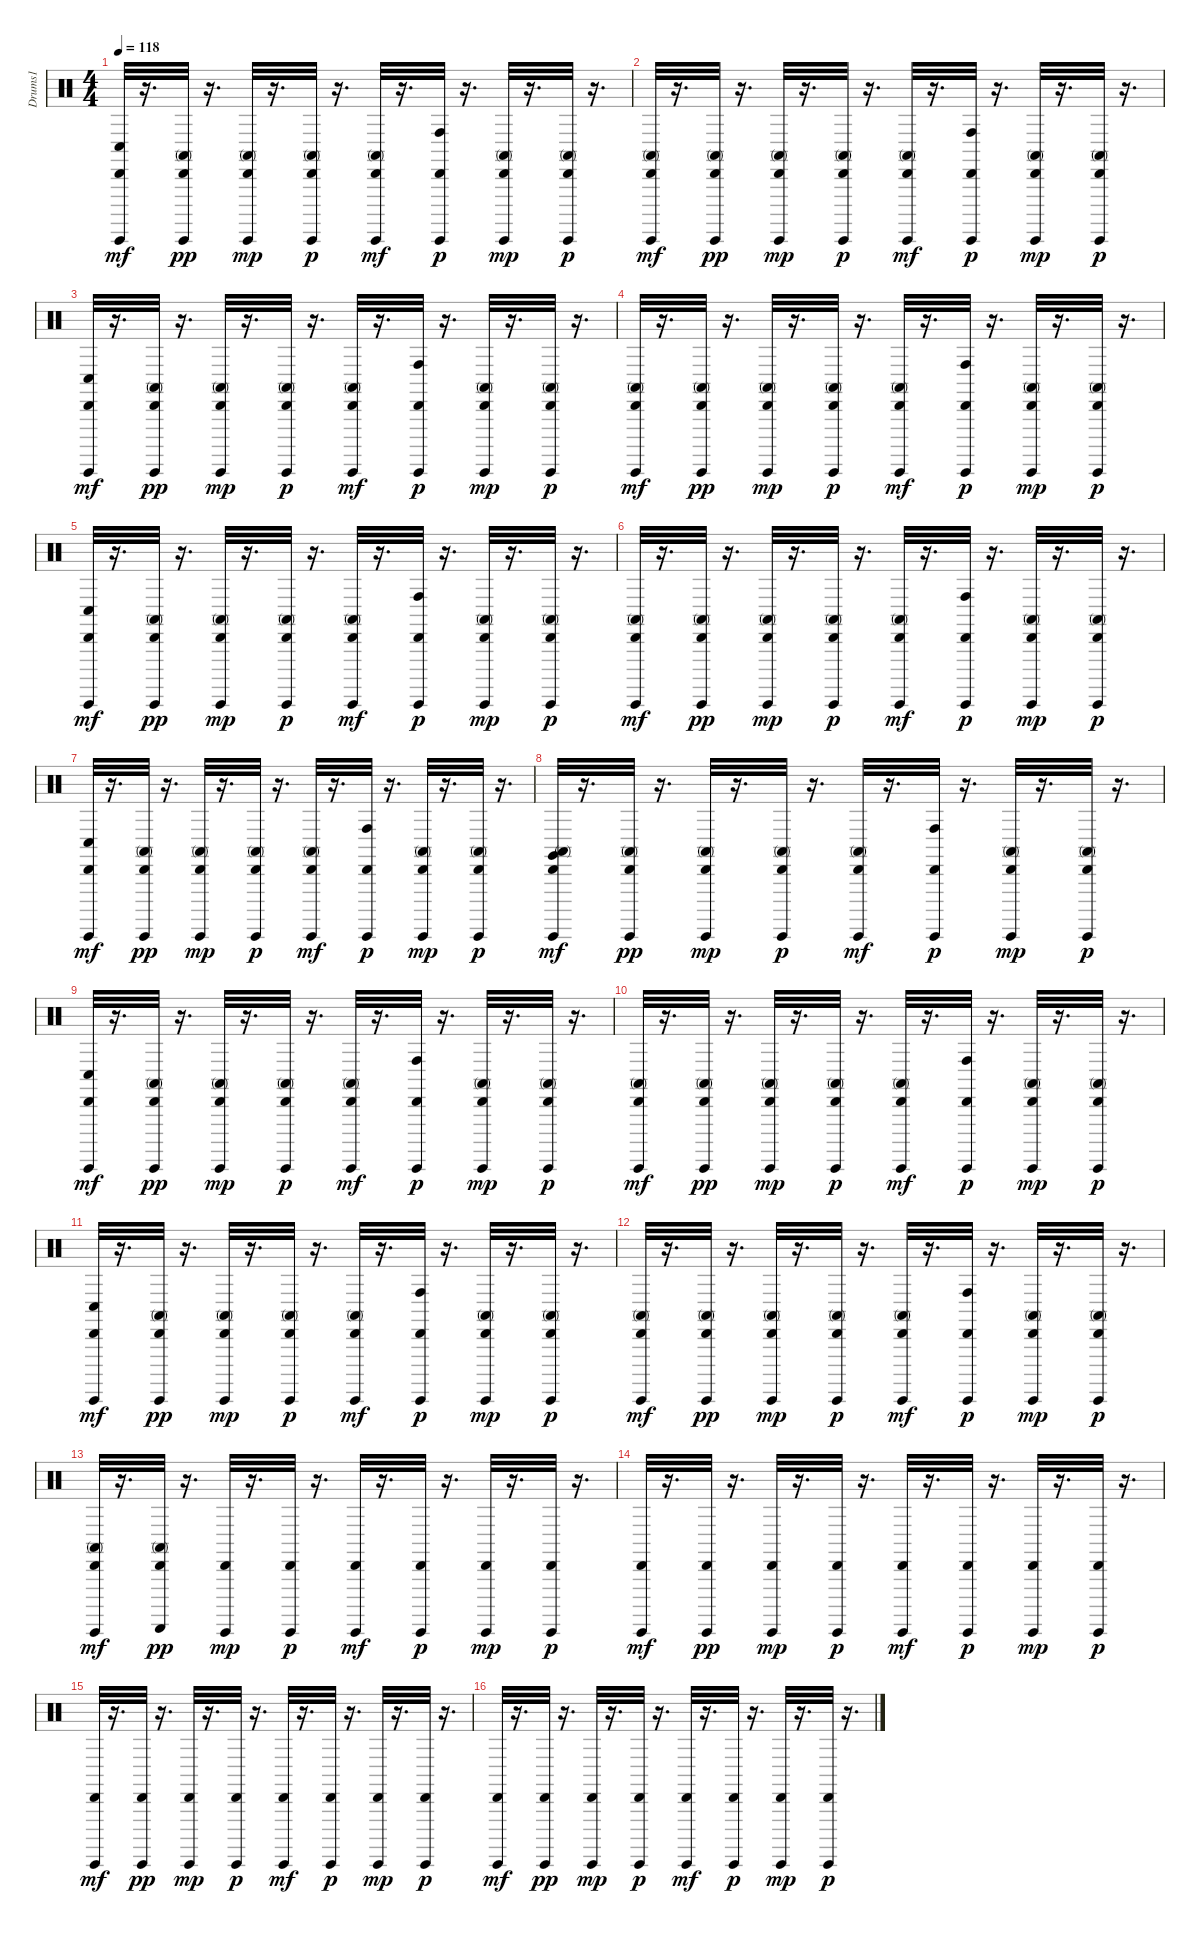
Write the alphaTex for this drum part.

\track ("Drums1" "Drums1") {instrument percussion}
\staff {score}
\articulation defaults
\ts (4 4)
\tempo 118
\clef neutral
\ks c
("Conga low (hit)" "Guiro (hit)" "Cabasa (hit)").32{dy mf} r.16{d} ("Conga high (mute)" "Guiro (hit)" "Cabasa (hit)").32{dy pp} r.16{d} ("Conga high (mute)" "Guiro (hit)" "Cabasa (hit)").32{dy mp} r.16{d} ("Conga high (mute)" "Guiro (hit)" "Cabasa (hit)").32{dy p} r.16{d} ("Conga high (mute)" "Guiro (hit)" "Cabasa (hit)").32{dy mf} r.16{d} ("Conga high (hit)" "Guiro (hit)" "Cabasa (hit)").32{dy p} r.16{d} ("Conga high (mute)" "Guiro (hit)" "Cabasa (hit)").32{dy mp} r.16{d} ("Conga high (mute)" "Guiro (hit)" "Cabasa (hit)").32{dy p} r.16{d} |
("Conga high (mute)" "Guiro (hit)" "Cabasa (hit)").32{dy mf} r.16{d} ("Conga high (mute)" "Guiro (hit)" "Cabasa (hit)").32{dy pp} r.16{d} ("Conga high (mute)" "Guiro (hit)" "Cabasa (hit)").32{dy mp} r.16{d} ("Conga high (mute)" "Guiro (hit)" "Cabasa (hit)").32{dy p} r.16{d} ("Conga high (mute)" "Guiro (hit)" "Cabasa (hit)").32{dy mf} r.16{d} ("Conga high (hit)" "Guiro (hit)" "Cabasa (hit)").32{dy p} r.16{d} ("Conga high (mute)" "Guiro (hit)" "Cabasa (hit)").32{dy mp} r.16{d} ("Conga high (mute)" "Guiro (hit)" "Cabasa (hit)").32{dy p} r.16{d} |
("Conga low (hit)" "Guiro (hit)" "Cabasa (hit)").32{dy mf} r.16{d} ("Conga high (mute)" "Guiro (hit)" "Cabasa (hit)").32{dy pp} r.16{d} ("Conga high (mute)" "Guiro (hit)" "Cabasa (hit)").32{dy mp} r.16{d} ("Conga high (mute)" "Guiro (hit)" "Cabasa (hit)").32{dy p} r.16{d} ("Conga high (mute)" "Guiro (hit)" "Cabasa (hit)").32{dy mf} r.16{d} ("Conga high (hit)" "Guiro (hit)" "Cabasa (hit)").32{dy p} r.16{d} ("Conga high (mute)" "Guiro (hit)" "Cabasa (hit)").32{dy mp} r.16{d} ("Conga high (mute)" "Guiro (hit)" "Cabasa (hit)").32{dy p} r.16{d} |
("Conga high (mute)" "Guiro (hit)" "Cabasa (hit)").32{dy mf} r.16{d} ("Conga high (mute)" "Guiro (hit)" "Cabasa (hit)").32{dy pp} r.16{d} ("Conga high (mute)" "Guiro (hit)" "Cabasa (hit)").32{dy mp} r.16{d} ("Conga high (mute)" "Guiro (hit)" "Cabasa (hit)").32{dy p} r.16{d} ("Conga high (mute)" "Guiro (hit)" "Cabasa (hit)").32{dy mf} r.16{d} ("Conga high (hit)" "Guiro (hit)" "Cabasa (hit)").32{dy p} r.16{d} ("Conga high (mute)" "Guiro (hit)" "Cabasa (hit)").32{dy mp} r.16{d} ("Conga high (mute)" "Guiro (hit)" "Cabasa (hit)").32{dy p} r.16{d} |
("Conga low (hit)" "Guiro (hit)" "Cabasa (hit)").32{dy mf} r.16{d} ("Conga high (mute)" "Guiro (hit)" "Cabasa (hit)").32{dy pp} r.16{d} ("Conga high (mute)" "Guiro (hit)" "Cabasa (hit)").32{dy mp} r.16{d} ("Conga high (mute)" "Guiro (hit)" "Cabasa (hit)").32{dy p} r.16{d} ("Conga high (mute)" "Guiro (hit)" "Cabasa (hit)").32{dy mf} r.16{d} ("Conga high (hit)" "Guiro (hit)" "Cabasa (hit)").32{dy p} r.16{d} ("Conga high (mute)" "Guiro (hit)" "Cabasa (hit)").32{dy mp} r.16{d} ("Conga high (mute)" "Guiro (hit)" "Cabasa (hit)").32{dy p} r.16{d} |
("Conga high (mute)" "Guiro (hit)" "Cabasa (hit)").32{dy mf} r.16{d} ("Conga high (mute)" "Guiro (hit)" "Cabasa (hit)").32{dy pp} r.16{d} ("Conga high (mute)" "Guiro (hit)" "Cabasa (hit)").32{dy mp} r.16{d} ("Conga high (mute)" "Guiro (hit)" "Cabasa (hit)").32{dy p} r.16{d} ("Conga high (mute)" "Guiro (hit)" "Cabasa (hit)").32{dy mf} r.16{d} ("Conga high (hit)" "Guiro (hit)" "Cabasa (hit)").32{dy p} r.16{d} ("Conga high (mute)" "Guiro (hit)" "Cabasa (hit)").32{dy mp} r.16{d} ("Conga high (mute)" "Guiro (hit)" "Cabasa (hit)").32{dy p} r.16{d} |
("Conga low (hit)" "Guiro (hit)" "Cabasa (hit)").32{dy mf} r.16{d} ("Conga high (mute)" "Guiro (hit)" "Cabasa (hit)").32{dy pp} r.16{d} ("Conga high (mute)" "Guiro (hit)" "Cabasa (hit)").32{dy mp} r.16{d} ("Conga high (mute)" "Guiro (hit)" "Cabasa (hit)").32{dy p} r.16{d} ("Conga high (mute)" "Guiro (hit)" "Cabasa (hit)").32{dy mf} r.16{d} ("Conga high (hit)" "Guiro (hit)" "Cabasa (hit)").32{dy p} r.16{d} ("Conga high (mute)" "Guiro (hit)" "Cabasa (hit)").32{dy mp} r.16{d} ("Conga high (mute)" "Guiro (hit)" "Cabasa (hit)").32{dy p} r.16{d} |
("Conga high (mute)" "Claves (hit)" "Guiro (hit)" "Cabasa (hit)").32{dy mf} r.16{d} ("Conga high (mute)" "Guiro (hit)" "Cabasa (hit)").32{dy pp} r.16{d} ("Conga high (mute)" "Guiro (hit)" "Cabasa (hit)").32{dy mp} r.16{d} ("Conga high (mute)" "Guiro (hit)" "Cabasa (hit)").32{dy p} r.16{d} ("Conga high (mute)" "Guiro (hit)" "Cabasa (hit)").32{dy mf} r.16{d} ("Conga high (hit)" "Guiro (hit)" "Cabasa (hit)").32{dy p} r.16{d} ("Conga high (mute)" "Guiro (hit)" "Cabasa (hit)").32{dy mp} r.16{d} ("Conga high (mute)" "Guiro (hit)" "Cabasa (hit)").32{dy p} r.16{d} |
("Conga low (hit)" "Guiro (hit)" "Cabasa (hit)").32{dy mf} r.16{d} ("Conga high (mute)" "Guiro (hit)" "Cabasa (hit)").32{dy pp} r.16{d} ("Conga high (mute)" "Guiro (hit)" "Cabasa (hit)").32{dy mp} r.16{d} ("Conga high (mute)" "Guiro (hit)" "Cabasa (hit)").32{dy p} r.16{d} ("Conga high (mute)" "Guiro (hit)" "Cabasa (hit)").32{dy mf} r.16{d} ("Conga high (hit)" "Guiro (hit)" "Cabasa (hit)").32{dy p} r.16{d} ("Conga high (mute)" "Guiro (hit)" "Cabasa (hit)").32{dy mp} r.16{d} ("Conga high (mute)" "Guiro (hit)" "Cabasa (hit)").32{dy p} r.16{d} |
("Conga high (mute)" "Guiro (hit)" "Cabasa (hit)").32{dy mf} r.16{d} ("Conga high (mute)" "Guiro (hit)" "Cabasa (hit)").32{dy pp} r.16{d} ("Conga high (mute)" "Guiro (hit)" "Cabasa (hit)").32{dy mp} r.16{d} ("Conga high (mute)" "Guiro (hit)" "Cabasa (hit)").32{dy p} r.16{d} ("Conga high (mute)" "Guiro (hit)" "Cabasa (hit)").32{dy mf} r.16{d} ("Conga high (hit)" "Guiro (hit)" "Cabasa (hit)").32{dy p} r.16{d} ("Conga high (mute)" "Guiro (hit)" "Cabasa (hit)").32{dy mp} r.16{d} ("Conga high (mute)" "Guiro (hit)" "Cabasa (hit)").32{dy p} r.16{d} |
("Conga low (hit)" "Guiro (hit)" "Cabasa (hit)").32{dy mf} r.16{d} ("Conga high (mute)" "Guiro (hit)" "Cabasa (hit)").32{dy pp} r.16{d} ("Conga high (mute)" "Guiro (hit)" "Cabasa (hit)").32{dy mp} r.16{d} ("Conga high (mute)" "Guiro (hit)" "Cabasa (hit)").32{dy p} r.16{d} ("Conga high (mute)" "Guiro (hit)" "Cabasa (hit)").32{dy mf} r.16{d} ("Conga high (hit)" "Guiro (hit)" "Cabasa (hit)").32{dy p} r.16{d} ("Conga high (mute)" "Guiro (hit)" "Cabasa (hit)").32{dy mp} r.16{d} ("Conga high (mute)" "Guiro (hit)" "Cabasa (hit)").32{dy p} r.16{d} |
("Conga high (mute)" "Guiro (hit)" "Cabasa (hit)").32{dy mf} r.16{d} ("Conga high (mute)" "Guiro (hit)" "Cabasa (hit)").32{dy pp} r.16{d} ("Conga high (mute)" "Guiro (hit)" "Cabasa (hit)").32{dy mp} r.16{d} ("Conga high (mute)" "Guiro (hit)" "Cabasa (hit)").32{dy p} r.16{d} ("Conga high (mute)" "Guiro (hit)" "Cabasa (hit)").32{dy mf} r.16{d} ("Conga high (hit)" "Guiro (hit)" "Cabasa (hit)").32{dy p} r.16{d} ("Conga high (mute)" "Guiro (hit)" "Cabasa (hit)").32{dy mp} r.16{d} ("Conga high (mute)" "Guiro (hit)" "Cabasa (hit)").32{dy p} r.16{d} |
("Conga high (mute)" "Guiro (hit)" "Cabasa (hit)").32{dy mf} r.16{d} ("Conga high (mute)" "Guiro (scrap-return)" "Cabasa (hit)").32{dy pp} r.16{d} ("Guiro (hit)" "Cabasa (hit)").32{dy mp} r.16{d} ("Guiro (hit)" "Cabasa (hit)").32{dy p} r.16{d} ("Guiro (hit)" "Cabasa (hit)").32{dy mf} r.16{d} ("Guiro (hit)" "Cabasa (hit)").32{dy p} r.16{d} ("Guiro (hit)" "Cabasa (hit)").32{dy mp} r.16{d} ("Guiro (hit)" "Cabasa (hit)").32{dy p} r.16{d} |
("Guiro (hit)" "Cabasa (hit)").32{dy mf} r.16{d} ("Guiro (hit)" "Cabasa (hit)").32{dy pp} r.16{d} ("Guiro (hit)" "Cabasa (hit)").32{dy mp} r.16{d} ("Guiro (hit)" "Cabasa (hit)").32{dy p} r.16{d} ("Guiro (hit)" "Cabasa (hit)").32{dy mf} r.16{d} ("Guiro (hit)" "Cabasa (hit)").32{dy p} r.16{d} ("Guiro (hit)" "Cabasa (hit)").32{dy mp} r.16{d} ("Guiro (hit)" "Cabasa (hit)").32{dy p} r.16{d} |
("Guiro (hit)" "Cabasa (hit)").32{dy mf} r.16{d} ("Guiro (hit)" "Cabasa (hit)").32{dy pp} r.16{d} ("Guiro (hit)" "Cabasa (hit)").32{dy mp} r.16{d} ("Guiro (hit)" "Cabasa (hit)").32{dy p} r.16{d} ("Guiro (hit)" "Cabasa (hit)").32{dy mf} r.16{d} ("Guiro (hit)" "Cabasa (hit)").32{dy p} r.16{d} ("Guiro (hit)" "Cabasa (hit)").32{dy mp} r.16{d} ("Guiro (hit)" "Cabasa (hit)").32{dy p} r.16{d} |
("Guiro (hit)" "Cabasa (hit)").32{dy mf} r.16{d} ("Guiro (hit)" "Cabasa (hit)").32{dy pp} r.16{d} ("Guiro (hit)" "Cabasa (hit)").32{dy mp} r.16{d} ("Guiro (hit)" "Cabasa (hit)").32{dy p} r.16{d} ("Guiro (hit)" "Cabasa (hit)").32{dy mf} r.16{d} ("Guiro (hit)" "Cabasa (hit)").32{dy p} r.16{d} ("Guiro (hit)" "Cabasa (hit)").32{dy mp} r.16{d} ("Guiro (hit)" "Cabasa (hit)").32{dy p} r.16{d}
